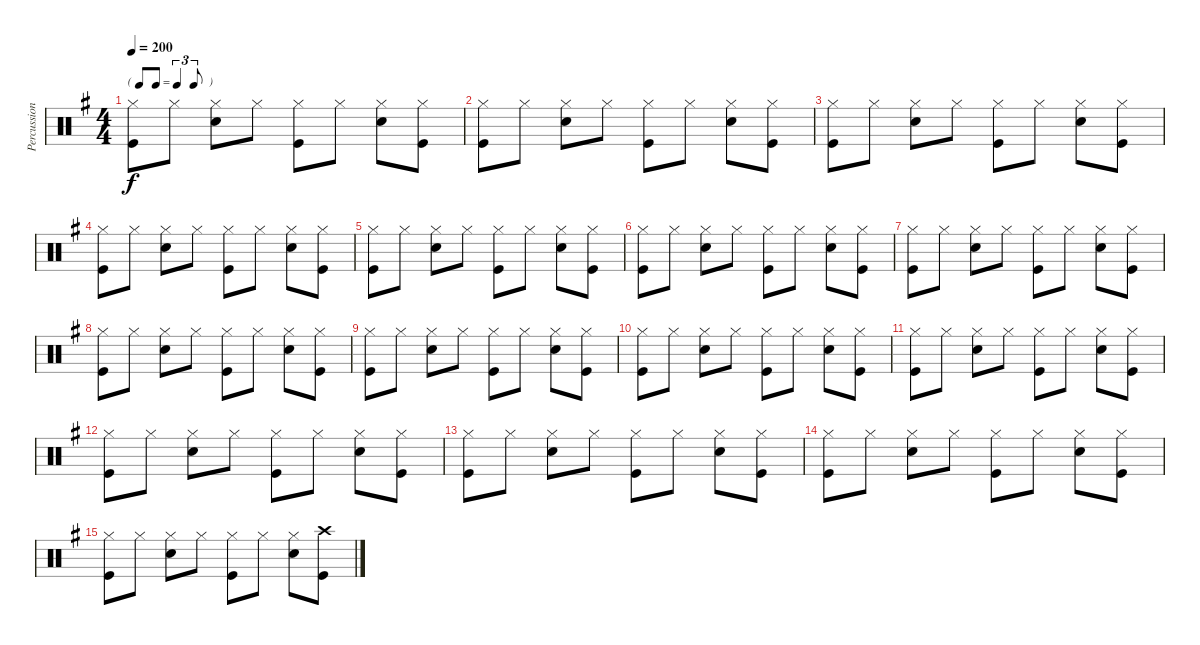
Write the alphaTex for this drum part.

\track ("Percussion" "Percussion") {instrument percussion}
\staff {score}
\articulation defaults
\ts (4 4)
\tf triplet8th
\tempo 200
\clef neutral
\ks g
("Hi-Hat (closed)" "Kick (hit)").8{dy f} "Hi-Hat (closed)".8 ("Hi-Hat (closed)" "Snare (hit) 2").8 "Hi-Hat (closed)".8 ("Hi-Hat (closed)" "Kick (hit)").8 "Hi-Hat (closed)".8 ("Hi-Hat (closed)" "Snare (hit) 2").8 ("Hi-Hat (closed)" "Kick (hit)").8 |
("Hi-Hat (closed)" "Kick (hit)").8 "Hi-Hat (closed)".8 ("Hi-Hat (closed)" "Snare (hit) 2").8 "Hi-Hat (closed)".8 ("Hi-Hat (closed)" "Kick (hit)").8 "Hi-Hat (closed)".8 ("Hi-Hat (closed)" "Snare (hit) 2").8 ("Hi-Hat (closed)" "Kick (hit)").8 |
("Hi-Hat (closed)" "Kick (hit)").8 "Hi-Hat (closed)".8 ("Hi-Hat (closed)" "Snare (hit) 2").8 "Hi-Hat (closed)".8 ("Hi-Hat (closed)" "Kick (hit)").8 "Hi-Hat (closed)".8 ("Hi-Hat (closed)" "Snare (hit) 2").8 ("Hi-Hat (closed)" "Kick (hit)").8 |
("Hi-Hat (closed)" "Kick (hit)").8 "Hi-Hat (closed)".8 ("Hi-Hat (closed)" "Snare (hit) 2").8 "Hi-Hat (closed)".8 ("Hi-Hat (closed)" "Kick (hit)").8 "Hi-Hat (closed)".8 ("Hi-Hat (closed)" "Snare (hit) 2").8 ("Hi-Hat (closed)" "Kick (hit)").8 |
("Hi-Hat (closed)" "Kick (hit)").8 "Hi-Hat (closed)".8 ("Hi-Hat (closed)" "Snare (hit) 2").8 "Hi-Hat (closed)".8 ("Hi-Hat (closed)" "Kick (hit)").8 "Hi-Hat (closed)".8 ("Hi-Hat (closed)" "Snare (hit) 2").8 ("Hi-Hat (closed)" "Kick (hit)").8 |
("Hi-Hat (closed)" "Kick (hit)").8 "Hi-Hat (closed)".8 ("Hi-Hat (closed)" "Snare (hit) 2").8 "Hi-Hat (closed)".8 ("Hi-Hat (closed)" "Kick (hit)").8 "Hi-Hat (closed)".8 ("Hi-Hat (closed)" "Snare (hit) 2").8 ("Hi-Hat (closed)" "Kick (hit)").8 |
("Hi-Hat (closed)" "Kick (hit)").8 "Hi-Hat (closed)".8 ("Hi-Hat (closed)" "Snare (hit) 2").8 "Hi-Hat (closed)".8 ("Hi-Hat (closed)" "Kick (hit)").8 "Hi-Hat (closed)".8 ("Hi-Hat (closed)" "Snare (hit) 2").8 ("Hi-Hat (closed)" "Kick (hit)").8 |
("Hi-Hat (closed)" "Kick (hit)").8 "Hi-Hat (closed)".8 ("Hi-Hat (closed)" "Snare (hit) 2").8 "Hi-Hat (closed)".8 ("Hi-Hat (closed)" "Kick (hit)").8 "Hi-Hat (closed)".8 ("Hi-Hat (closed)" "Snare (hit) 2").8 ("Hi-Hat (closed)" "Kick (hit)").8 |
("Hi-Hat (closed)" "Kick (hit)").8 "Hi-Hat (closed)".8 ("Hi-Hat (closed)" "Snare (hit) 2").8 "Hi-Hat (closed)".8 ("Hi-Hat (closed)" "Kick (hit)").8 "Hi-Hat (closed)".8 ("Hi-Hat (closed)" "Snare (hit) 2").8 ("Hi-Hat (closed)" "Kick (hit)").8 |
("Hi-Hat (closed)" "Kick (hit)").8 "Hi-Hat (closed)".8 ("Hi-Hat (closed)" "Snare (hit) 2").8 "Hi-Hat (closed)".8 ("Hi-Hat (closed)" "Kick (hit)").8 "Hi-Hat (closed)".8 ("Hi-Hat (closed)" "Snare (hit) 2").8 ("Hi-Hat (closed)" "Kick (hit)").8 |
("Hi-Hat (closed)" "Kick (hit)").8 "Hi-Hat (closed)".8 ("Hi-Hat (closed)" "Snare (hit) 2").8 "Hi-Hat (closed)".8 ("Hi-Hat (closed)" "Kick (hit)").8 "Hi-Hat (closed)".8 ("Hi-Hat (closed)" "Snare (hit) 2").8 ("Hi-Hat (closed)" "Kick (hit)").8 |
("Hi-Hat (closed)" "Kick (hit)").8 "Hi-Hat (closed)".8 ("Hi-Hat (closed)" "Snare (hit) 2").8 "Hi-Hat (closed)".8 ("Hi-Hat (closed)" "Kick (hit)").8 "Hi-Hat (closed)".8 ("Hi-Hat (closed)" "Snare (hit) 2").8 ("Hi-Hat (closed)" "Kick (hit)").8 |
("Hi-Hat (closed)" "Kick (hit)").8 "Hi-Hat (closed)".8 ("Hi-Hat (closed)" "Snare (hit) 2").8 "Hi-Hat (closed)".8 ("Hi-Hat (closed)" "Kick (hit)").8 "Hi-Hat (closed)".8 ("Hi-Hat (closed)" "Snare (hit) 2").8 ("Hi-Hat (closed)" "Kick (hit)").8 |
("Hi-Hat (closed)" "Kick (hit)").8 "Hi-Hat (closed)".8 ("Hi-Hat (closed)" "Snare (hit) 2").8 "Hi-Hat (closed)".8 ("Hi-Hat (closed)" "Kick (hit)").8 "Hi-Hat (closed)".8 ("Hi-Hat (closed)" "Snare (hit) 2").8 ("Hi-Hat (closed)" "Kick (hit)").8 |
("Hi-Hat (closed)" "Kick (hit)").8 "Hi-Hat (closed)".8 ("Hi-Hat (closed)" "Snare (hit) 2").8 "Hi-Hat (closed)".8 ("Hi-Hat (closed)" "Kick (hit)").8 "Hi-Hat (closed)".8 ("Hi-Hat (closed)" "Snare (hit) 2").8 ("Crash high (hit)" "Kick (hit)").8
